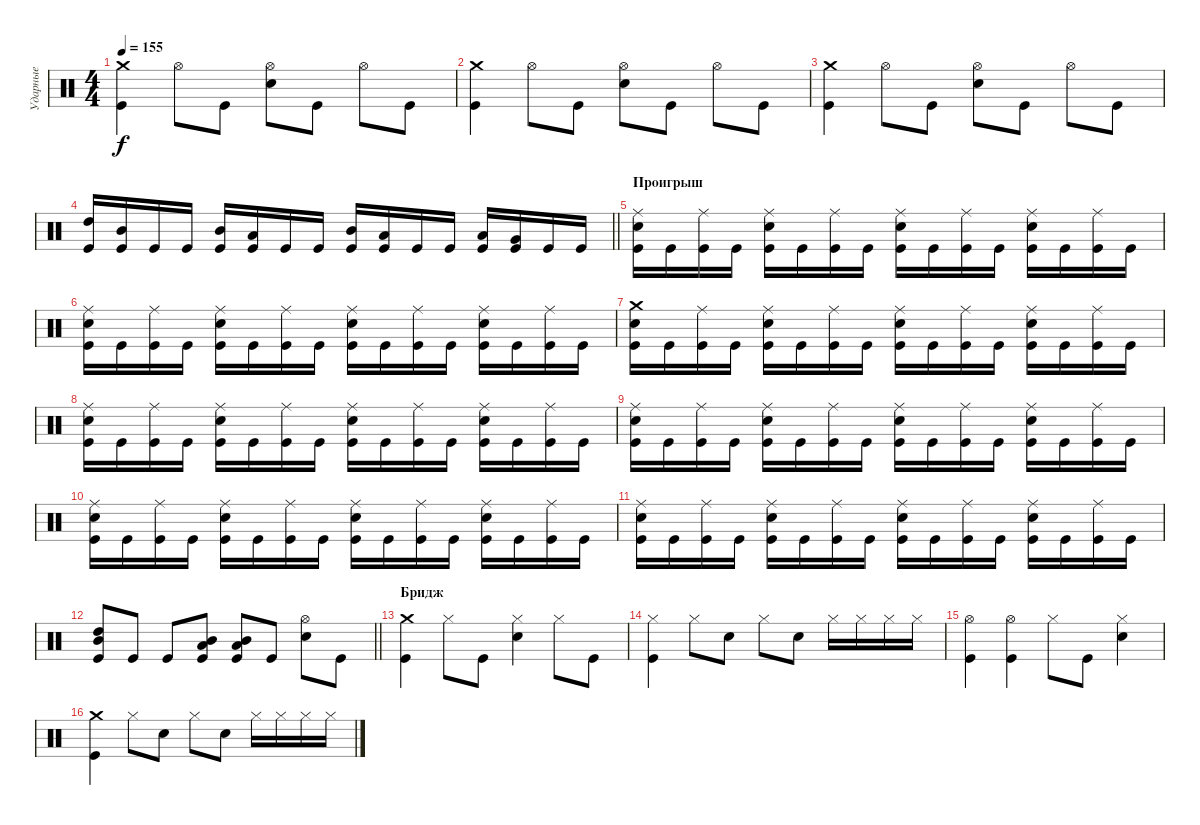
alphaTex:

\track ("Ударные" "Ударные") {instrument percussion}
\staff {score}
\articulation defaults
\ts (4 4)
\tempo 155
\clef neutral
\ks c
("Kick (hit)" "Crash medium (hit)").4{dy f} "Hi-Hat (open)".8 "Kick (hit)".8 ("Snare (hit) 2" "Hi-Hat (open)").8 "Kick (hit)".8 "Hi-Hat (open)".8 "Kick (hit)".8 |
("Kick (hit)" "Crash medium (hit)").4 "Hi-Hat (open)".8 "Kick (hit)".8 ("Snare (hit) 2" "Hi-Hat (open)").8 "Kick (hit)".8 "Hi-Hat (open)".8 "Kick (hit)".8 |
("Kick (hit)" "Crash medium (hit)").4 "Hi-Hat (open)".8 "Kick (hit)".8 ("Snare (hit) 2" "Hi-Hat (open)").8 "Kick (hit)".8 "Hi-Hat (open)".8 "Kick (hit)".8 |
\barLineRight lightlight
("Kick (hit)" "High Tom (hit)").16 ("Kick (hit)" "Mid Tom (hit)").16 "Kick (hit)".16 "Kick (hit)".16 ("Kick (hit)" "Mid Tom (hit)").16 ("Kick (hit)" "Low Tom (hit)").16 "Kick (hit)".16 "Kick (hit)".16 ("Kick (hit)" "Mid Tom (hit)").16 ("Kick (hit)" "Low Tom (hit)").16 "Kick (hit)".16 "Kick (hit)".16 ("Kick (hit)" "Low Tom (hit)").16 ("Kick (hit)" "Very Low Tom (hit)").16 "Kick (hit)".16 "Kick (hit)".16 |
\section ("" "Проигрыш")
("Kick (hit)" "Snare (hit) 2" "Ride (middle)").16 "Kick (hit)".16 ("Kick (hit)" "Ride (middle)").16 "Kick (hit)".16 ("Kick (hit)" "Snare (hit) 2" "Ride (middle)").16 "Kick (hit)".16 ("Kick (hit)" "Ride (middle)").16 "Kick (hit)".16 ("Kick (hit)" "Snare (hit) 2" "Ride (middle)").16 "Kick (hit)".16 ("Kick (hit)" "Ride (middle)").16 "Kick (hit)".16 ("Kick (hit)" "Snare (hit) 2" "Ride (middle)").16 "Kick (hit)".16 ("Kick (hit)" "Ride (middle)").16 "Kick (hit)".16 |
("Kick (hit)" "Snare (hit) 2" "Ride (middle)").16 "Kick (hit)".16 ("Kick (hit)" "Ride (middle)").16 "Kick (hit)".16 ("Kick (hit)" "Snare (hit) 2" "Ride (middle)").16 "Kick (hit)".16 ("Kick (hit)" "Ride (middle)").16 "Kick (hit)".16 ("Kick (hit)" "Snare (hit) 2" "Ride (middle)").16 "Kick (hit)".16 ("Kick (hit)" "Ride (middle)").16 "Kick (hit)".16 ("Kick (hit)" "Snare (hit) 2" "Ride (middle)").16 "Kick (hit)".16 ("Kick (hit)" "Ride (middle)").16 "Kick (hit)".16 |
("Kick (hit)" "Snare (hit) 2" "Crash medium (hit)").16 "Kick (hit)".16 ("Kick (hit)" "Ride (middle)").16 "Kick (hit)".16 ("Kick (hit)" "Snare (hit) 2" "Ride (middle)").16 "Kick (hit)".16 ("Kick (hit)" "Ride (middle)").16 "Kick (hit)".16 ("Kick (hit)" "Snare (hit) 2" "Ride (middle)").16 "Kick (hit)".16 ("Kick (hit)" "Ride (middle)").16 "Kick (hit)".16 ("Kick (hit)" "Snare (hit) 2" "Ride (middle)").16 "Kick (hit)".16 ("Kick (hit)" "Ride (middle)").16 "Kick (hit)".16 |
("Kick (hit)" "Snare (hit) 2" "Ride (middle)").16 "Kick (hit)".16 ("Kick (hit)" "Ride (middle)").16 "Kick (hit)".16 ("Kick (hit)" "Snare (hit) 2" "Ride (middle)").16 "Kick (hit)".16 ("Kick (hit)" "Ride (middle)").16 "Kick (hit)".16 ("Kick (hit)" "Snare (hit) 2" "Ride (middle)").16 "Kick (hit)".16 ("Kick (hit)" "Ride (middle)").16 "Kick (hit)".16 ("Kick (hit)" "Snare (hit) 2" "Ride (middle)").16 "Kick (hit)".16 ("Kick (hit)" "Ride (middle)").16 "Kick (hit)".16 |
("Kick (hit)" "Snare (hit) 2" "Ride (middle)").16 "Kick (hit)".16 ("Kick (hit)" "Ride (middle)").16 "Kick (hit)".16 ("Kick (hit)" "Snare (hit) 2" "Ride (middle)").16 "Kick (hit)".16 ("Kick (hit)" "Ride (middle)").16 "Kick (hit)".16 ("Kick (hit)" "Snare (hit) 2" "Ride (middle)").16 "Kick (hit)".16 ("Kick (hit)" "Ride (middle)").16 "Kick (hit)".16 ("Kick (hit)" "Snare (hit) 2" "Ride (middle)").16 "Kick (hit)".16 ("Kick (hit)" "Ride (middle)").16 "Kick (hit)".16 |
("Kick (hit)" "Snare (hit) 2" "Ride (middle)").16 "Kick (hit)".16 ("Kick (hit)" "Ride (middle)").16 "Kick (hit)".16 ("Kick (hit)" "Snare (hit) 2" "Ride (middle)").16 "Kick (hit)".16 ("Kick (hit)" "Ride (middle)").16 "Kick (hit)".16 ("Kick (hit)" "Snare (hit) 2" "Ride (middle)").16 "Kick (hit)".16 ("Kick (hit)" "Ride (middle)").16 "Kick (hit)".16 ("Kick (hit)" "Snare (hit) 2" "Ride (middle)").16 "Kick (hit)".16 ("Kick (hit)" "Ride (middle)").16 "Kick (hit)".16 |
("Kick (hit)" "Snare (hit) 2" "Ride (middle)").16 "Kick (hit)".16 ("Kick (hit)" "Ride (middle)").16 "Kick (hit)".16 ("Kick (hit)" "Snare (hit) 2" "Ride (middle)").16 "Kick (hit)".16 ("Kick (hit)" "Ride (middle)").16 "Kick (hit)".16 ("Kick (hit)" "Snare (hit) 2" "Ride (middle)").16 "Kick (hit)".16 ("Kick (hit)" "Ride (middle)").16 "Kick (hit)".16 ("Kick (hit)" "Snare (hit) 2" "Ride (middle)").16 "Kick (hit)".16 ("Kick (hit)" "Ride (middle)").16 "Kick (hit)".16 |
\barLineRight lightlight
("Kick (hit)" "Mid Tom (hit)" "High Tom (hit)").8{bd 60} "Kick (hit)".8 "Kick (hit)".8 ("Kick (hit)" "Low Tom (hit)" "Mid Tom (hit)").8{bd 60} ("Kick (hit)" "Low Tom (hit)" "Mid Tom (hit)").8{bd 60} "Kick (hit)".8 ("Snare (hit) 2" "Hi-Hat (open)").8 "Kick (hit)".8 |
\section ("" "Бридж")
("Kick (hit)" "Crash medium (hit)").4 "Hi-Hat (closed)".8 "Kick (hit)".8 ("Snare (hit) 2" "Hi-Hat (closed)").4 "Hi-Hat (closed)".8 "Kick (hit)".8 |
("Kick (hit)" "Hi-Hat (closed)").4 "Hi-Hat (closed)".8 "Snare (hit) 2".8 "Hi-Hat (closed)".8 "Snare (hit) 2".8 "Hi-Hat (closed)".16 "Hi-Hat (closed)".16 "Hi-Hat (closed)".16 "Hi-Hat (closed)".16 |
("Kick (hit)" "Hi-Hat (open)").4 ("Kick (hit)" "Hi-Hat (open)").4 "Hi-Hat (closed)".8 "Kick (hit)".8 ("Snare (hit) 2" "Hi-Hat (closed)").4 |
("Kick (hit)" "Crash medium (hit)").4 "Hi-Hat (closed)".8 "Snare (hit) 2".8 "Hi-Hat (closed)".8 "Snare (hit) 2".8 "Hi-Hat (closed)".16 "Hi-Hat (closed)".16 "Hi-Hat (closed)".16 "Hi-Hat (closed)".16
